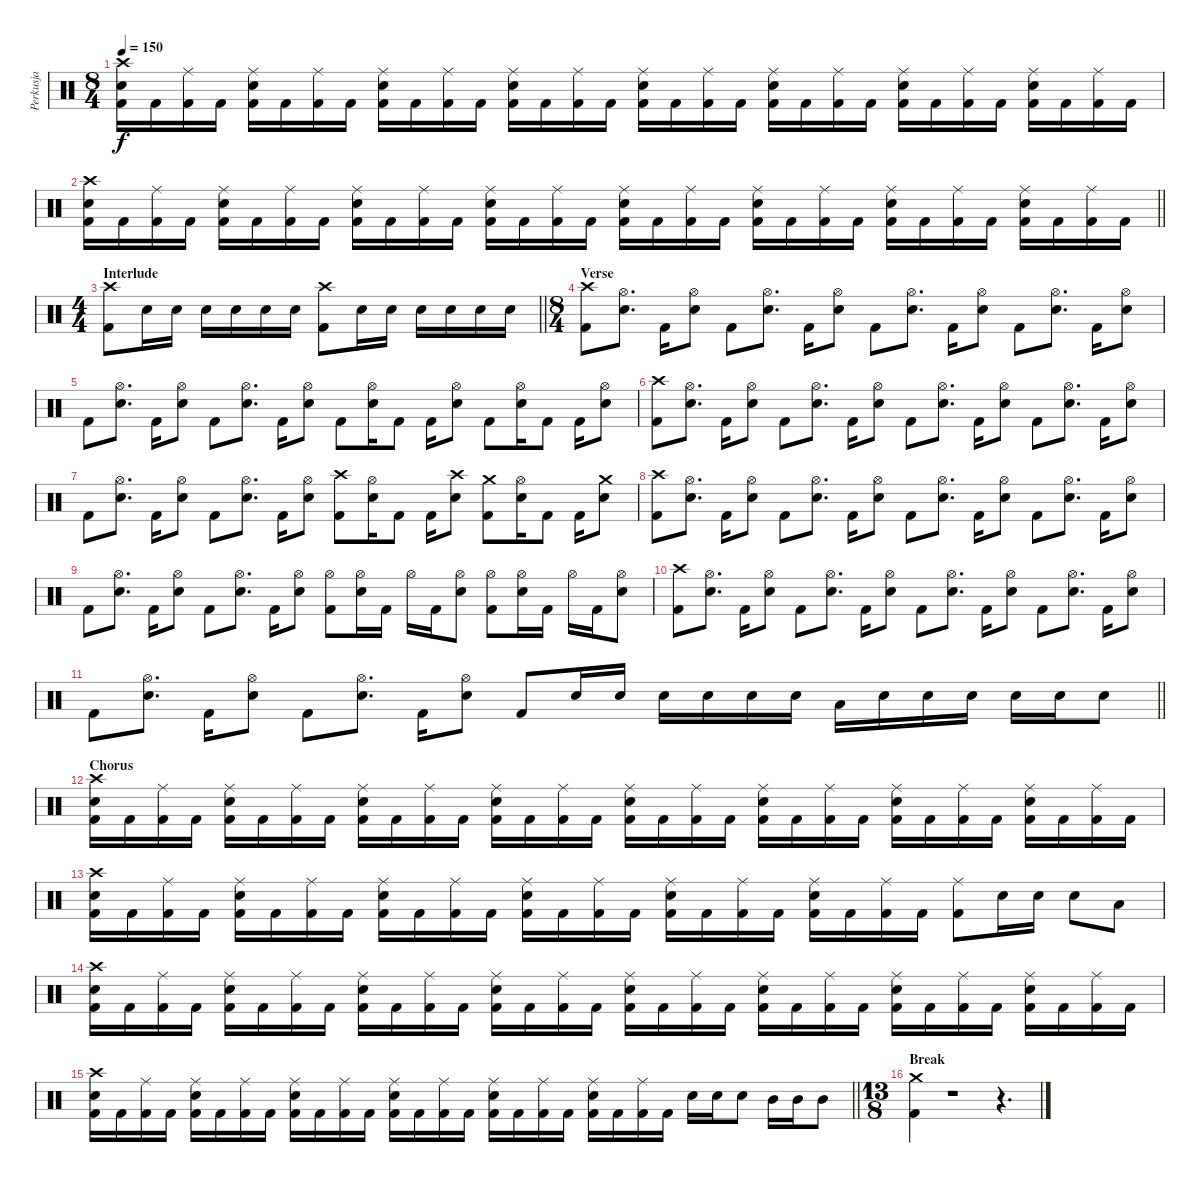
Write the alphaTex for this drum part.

\track ("Perkusja" "Perkusja") {instrument percussion}
\staff {score}
\articulation defaults
\ts (8 4)
\tempo 150
\clef neutral
\ks c
("Crash high (hit)" "Snare (hit) 2" "Kick (hit) 2").16{dy f} "Kick (hit) 2".16 ("Ride (middle)" "Kick (hit) 2").16 "Kick (hit) 2".16 ("Ride (middle)" "Snare (hit) 2" "Kick (hit) 2").16 "Kick (hit) 2".16 ("Ride (middle)" "Kick (hit) 2").16 "Kick (hit) 2".16 ("Ride (middle)" "Snare (hit) 2" "Kick (hit) 2").16 "Kick (hit) 2".16 ("Ride (middle)" "Kick (hit) 2").16 "Kick (hit) 2".16 ("Ride (middle)" "Snare (hit) 2" "Kick (hit) 2").16 "Kick (hit) 2".16 ("Ride (middle)" "Kick (hit) 2").16 "Kick (hit) 2".16 ("Ride (middle)" "Snare (hit) 2" "Kick (hit) 2").16 "Kick (hit) 2".16 ("Ride (middle)" "Kick (hit) 2").16 "Kick (hit) 2".16 ("Ride (middle)" "Snare (hit) 2" "Kick (hit) 2").16 "Kick (hit) 2".16 ("Ride (middle)" "Kick (hit) 2").16 "Kick (hit) 2".16 ("Ride (middle)" "Snare (hit) 2" "Kick (hit) 2").16 "Kick (hit) 2".16 ("Ride (middle)" "Kick (hit) 2").16 "Kick (hit) 2".16 ("Ride (middle)" "Snare (hit) 2" "Kick (hit) 2").16 "Kick (hit) 2".16 ("Ride (middle)" "Kick (hit) 2").16 "Kick (hit) 2".16 |
\barLineRight lightlight
("Crash high (hit)" "Snare (hit) 2" "Kick (hit) 2").16 "Kick (hit) 2".16 ("Ride (middle)" "Kick (hit) 2").16 "Kick (hit) 2".16 ("Ride (middle)" "Snare (hit) 2" "Kick (hit) 2").16 "Kick (hit) 2".16 ("Ride (middle)" "Kick (hit) 2").16 "Kick (hit) 2".16 ("Ride (middle)" "Snare (hit) 2" "Kick (hit) 2").16 "Kick (hit) 2".16 ("Ride (middle)" "Kick (hit) 2").16 "Kick (hit) 2".16 ("Ride (middle)" "Snare (hit) 2" "Kick (hit) 2").16 "Kick (hit) 2".16 ("Ride (middle)" "Kick (hit) 2").16 "Kick (hit) 2".16 ("Ride (middle)" "Snare (hit) 2" "Kick (hit) 2").16 "Kick (hit) 2".16 ("Ride (middle)" "Kick (hit) 2").16 "Kick (hit) 2".16 ("Ride (middle)" "Snare (hit) 2" "Kick (hit) 2").16 "Kick (hit) 2".16 ("Ride (middle)" "Kick (hit) 2").16 "Kick (hit) 2".16 ("Ride (middle)" "Snare (hit) 2" "Kick (hit) 2").16 "Kick (hit) 2".16 ("Ride (middle)" "Kick (hit) 2").16 "Kick (hit) 2".16 ("Ride (middle)" "Snare (hit) 2" "Kick (hit) 2").16 "Kick (hit) 2".16 ("Ride (middle)" "Kick (hit) 2").16 "Kick (hit) 2".16 |
\ts (4 4)
\section ("" "Interlude")
\barLineRight lightlight
("Crash high (hit)" "Kick (hit) 2").8 "Snare (hit) 2".16 "Snare (hit) 2".16 "Snare (hit) 2".16 "Snare (hit) 2".16 "Snare (hit) 2".16 "Snare (hit) 2".16 ("Crash high (hit)" "Kick (hit) 2").8 "Snare (hit) 2".16 "Snare (hit) 2".16 "Snare (hit) 2".16 "Snare (hit) 2".16 "Snare (hit) 2".16 "Snare (hit) 2".16 |
\ts (8 4)
\section ("" "Verse")
("Crash high (hit)" "Kick (hit) 2").8 ("Hi-Hat (open)" "Snare (hit) 2").8{d} "Kick (hit) 2".16 ("Hi-Hat (open)" "Snare (hit) 2").8 "Kick (hit) 2".8 ("Hi-Hat (open)" "Snare (hit) 2").8{d} "Kick (hit) 2".16 ("Hi-Hat (open)" "Snare (hit) 2").8 "Kick (hit) 2".8 ("Hi-Hat (open)" "Snare (hit) 2").8{d} "Kick (hit) 2".16 ("Hi-Hat (open)" "Snare (hit) 2").8 "Kick (hit) 2".8 ("Hi-Hat (open)" "Snare (hit) 2").8{d} "Kick (hit) 2".16 ("Hi-Hat (open)" "Snare (hit) 2").8 |
"Kick (hit) 2".8 ("Hi-Hat (open)" "Snare (hit) 2").8{d} "Kick (hit) 2".16 ("Hi-Hat (open)" "Snare (hit) 2").8 "Kick (hit) 2".8 ("Hi-Hat (open)" "Snare (hit) 2").8{d} "Kick (hit) 2".16 ("Hi-Hat (open)" "Snare (hit) 2").8 "Kick (hit) 2".8 ("Hi-Hat (open)" "Snare (hit) 2").16 "Kick (hit) 2".8 "Kick (hit) 2".16 ("Hi-Hat (open)" "Snare (hit) 2").8 "Kick (hit) 2".8 ("Hi-Hat (open)" "Snare (hit) 2").16 "Kick (hit) 2".8 "Kick (hit) 2".16 ("Hi-Hat (open)" "Snare (hit) 2").8 |
("Crash high (hit)" "Kick (hit) 2").8 ("Hi-Hat (open)" "Snare (hit) 2").8{d} "Kick (hit) 2".16 ("Hi-Hat (open)" "Snare (hit) 2").8 "Kick (hit) 2".8 ("Hi-Hat (open)" "Snare (hit) 2").8{d} "Kick (hit) 2".16 ("Hi-Hat (open)" "Snare (hit) 2").8 "Kick (hit) 2".8 ("Hi-Hat (open)" "Snare (hit) 2").8{d} "Kick (hit) 2".16 ("Hi-Hat (open)" "Snare (hit) 2").8 "Kick (hit) 2".8 ("Hi-Hat (open)" "Snare (hit) 2").8{d} "Kick (hit) 2".16 ("Hi-Hat (open)" "Snare (hit) 2").8 |
"Kick (hit) 2".8 ("Hi-Hat (open)" "Snare (hit) 2").8{d} "Kick (hit) 2".16 ("Hi-Hat (open)" "Snare (hit) 2").8 "Kick (hit) 2".8 ("Hi-Hat (open)" "Snare (hit) 2").8{d} "Kick (hit) 2".16 ("Hi-Hat (open)" "Snare (hit) 2").8 ("Crash high (hit)" "Kick (hit) 2").8 ("Hi-Hat (open)" "Snare (hit) 2").16 "Kick (hit) 2".8 "Kick (hit) 2".16 ("Crash high (hit)" "Snare (hit) 2").8 ("Crash medium (hit)" "Kick (hit) 2").8 ("Hi-Hat (open)" "Snare (hit) 2").16 "Kick (hit) 2".8 "Kick (hit) 2".16 ("Crash medium (hit)" "Snare (hit) 2").8 |
("Crash high (hit)" "Kick (hit) 2").8 ("Hi-Hat (open)" "Snare (hit) 2").8{d} "Kick (hit) 2".16 ("Hi-Hat (open)" "Snare (hit) 2").8 "Kick (hit) 2".8 ("Hi-Hat (open)" "Snare (hit) 2").8{d} "Kick (hit) 2".16 ("Hi-Hat (open)" "Snare (hit) 2").8 "Kick (hit) 2".8 ("Hi-Hat (open)" "Snare (hit) 2").8{d} "Kick (hit) 2".16 ("Hi-Hat (open)" "Snare (hit) 2").8 "Kick (hit) 2".8 ("Hi-Hat (open)" "Snare (hit) 2").8{d} "Kick (hit) 2".16 ("Hi-Hat (open)" "Snare (hit) 2").8 |
"Kick (hit) 2".8 ("Hi-Hat (open)" "Snare (hit) 2").8{d} "Kick (hit) 2".16 ("Hi-Hat (open)" "Snare (hit) 2").8 "Kick (hit) 2".8 ("Hi-Hat (open)" "Snare (hit) 2").8{d} "Kick (hit) 2".16 ("Hi-Hat (open)" "Snare (hit) 2").8 ("Hi-Hat (open)" "Kick (hit) 2").8 ("Hi-Hat (open)" "Snare (hit) 2").16 "Kick (hit) 2".16 "Hi-Hat (open)".16 "Kick (hit) 2".16 ("Hi-Hat (open)" "Snare (hit) 2").8 ("Hi-Hat (open)" "Kick (hit) 2").8 ("Hi-Hat (open)" "Snare (hit) 2").16 "Kick (hit) 2".16 "Hi-Hat (open)".16 "Kick (hit) 2".16 ("Hi-Hat (open)" "Snare (hit) 2").8 |
("Crash high (hit)" "Kick (hit) 2").8 ("Hi-Hat (open)" "Snare (hit) 2").8{d} "Kick (hit) 2".16 ("Hi-Hat (open)" "Snare (hit) 2").8 "Kick (hit) 2".8 ("Hi-Hat (open)" "Snare (hit) 2").8{d} "Kick (hit) 2".16 ("Hi-Hat (open)" "Snare (hit) 2").8 "Kick (hit) 2".8 ("Hi-Hat (open)" "Snare (hit) 2").8{d} "Kick (hit) 2".16 ("Hi-Hat (open)" "Snare (hit) 2").8 "Kick (hit) 2".8 ("Hi-Hat (open)" "Snare (hit) 2").8{d} "Kick (hit) 2".16 ("Hi-Hat (open)" "Snare (hit) 2").8 |
\barLineRight lightlight "Kick (hit) 2".8
("Hi-Hat (open)" "Snare (hit) 2").8{d} "Kick (hit) 2".16 ("Hi-Hat (open)" "Snare (hit) 2").8 "Kick (hit) 2".8 ("Hi-Hat (open)" "Snare (hit) 2").8{d} "Kick (hit) 2".16 ("Hi-Hat (open)" "Snare (hit) 2").8 "Kick (hit) 2".8 "Snare (hit) 2".16 "Snare (hit) 2".16 "Snare (hit) 2".16 "Snare (hit) 2".16 "Snare (hit) 2".16 "Snare (hit) 2".16 "Low Tom (hit)".16 "Snare (hit) 2".16 "Snare (hit) 2".16 "Snare (hit) 2".16 "Snare (hit) 2".16 "Snare (hit) 2".16 "Snare (hit) 2".8 |
\section ("" "Chorus")
("Crash high (hit)" "Snare (hit) 2" "Kick (hit) 2").16 "Kick (hit) 2".16 ("Ride (middle)" "Kick (hit) 2").16 "Kick (hit) 2".16 ("Ride (middle)" "Snare (hit) 2" "Kick (hit) 2").16 "Kick (hit) 2".16 ("Ride (middle)" "Kick (hit) 2").16 "Kick (hit) 2".16 ("Ride (middle)" "Snare (hit) 2" "Kick (hit) 2").16 "Kick (hit) 2".16 ("Ride (middle)" "Kick (hit) 2").16 "Kick (hit) 2".16 ("Ride (middle)" "Snare (hit) 2" "Kick (hit) 2").16 "Kick (hit) 2".16 ("Ride (middle)" "Kick (hit) 2").16 "Kick (hit) 2".16 ("Ride (middle)" "Snare (hit) 2" "Kick (hit) 2").16 "Kick (hit) 2".16 ("Ride (middle)" "Kick (hit) 2").16 "Kick (hit) 2".16 ("Ride (middle)" "Snare (hit) 2" "Kick (hit) 2").16 "Kick (hit) 2".16 ("Ride (middle)" "Kick (hit) 2").16 "Kick (hit) 2".16 ("Ride (middle)" "Snare (hit) 2" "Kick (hit) 2").16 "Kick (hit) 2".16 ("Ride (middle)" "Kick (hit) 2").16 "Kick (hit) 2".16 ("Ride (middle)" "Snare (hit) 2" "Kick (hit) 2").16 "Kick (hit) 2".16 ("Ride (middle)" "Kick (hit) 2").16 "Kick (hit) 2".16 |
("Crash high (hit)" "Snare (hit) 2" "Kick (hit) 2").16 "Kick (hit) 2".16 ("Ride (middle)" "Kick (hit) 2").16 "Kick (hit) 2".16 ("Ride (middle)" "Snare (hit) 2" "Kick (hit) 2").16 "Kick (hit) 2".16 ("Ride (middle)" "Kick (hit) 2").16 "Kick (hit) 2".16 ("Ride (middle)" "Snare (hit) 2" "Kick (hit) 2").16 "Kick (hit) 2".16 ("Ride (middle)" "Kick (hit) 2").16 "Kick (hit) 2".16 ("Ride (middle)" "Snare (hit) 2" "Kick (hit) 2").16 "Kick (hit) 2".16 ("Ride (middle)" "Kick (hit) 2").16 "Kick (hit) 2".16 ("Ride (middle)" "Snare (hit) 2" "Kick (hit) 2").16 "Kick (hit) 2".16 ("Ride (middle)" "Kick (hit) 2").16 "Kick (hit) 2".16 ("Ride (middle)" "Snare (hit) 2" "Kick (hit) 2").16 "Kick (hit) 2".16 ("Ride (middle)" "Kick (hit) 2").16 "Kick (hit) 2".16 ("Ride (middle)" "Kick (hit) 2").8 "Snare (hit) 2".16 "Snare (hit) 2".16 "Snare (hit) 2".8 "Low Tom (hit)".8 |
("Crash high (hit)" "Snare (hit) 2" "Kick (hit) 2").16 "Kick (hit) 2".16 ("Ride (middle)" "Kick (hit) 2").16 "Kick (hit) 2".16 ("Ride (middle)" "Snare (hit) 2" "Kick (hit) 2").16 "Kick (hit) 2".16 ("Ride (middle)" "Kick (hit) 2").16 "Kick (hit) 2".16 ("Ride (middle)" "Snare (hit) 2" "Kick (hit) 2").16 "Kick (hit) 2".16 ("Ride (middle)" "Kick (hit) 2").16 "Kick (hit) 2".16 ("Ride (middle)" "Snare (hit) 2" "Kick (hit) 2").16 "Kick (hit) 2".16 ("Ride (middle)" "Kick (hit) 2").16 "Kick (hit) 2".16 ("Ride (middle)" "Snare (hit) 2" "Kick (hit) 2").16 "Kick (hit) 2".16 ("Ride (middle)" "Kick (hit) 2").16 "Kick (hit) 2".16 ("Ride (middle)" "Snare (hit) 2" "Kick (hit) 2").16 "Kick (hit) 2".16 ("Ride (middle)" "Kick (hit) 2").16 "Kick (hit) 2".16 ("Ride (middle)" "Snare (hit) 2" "Kick (hit) 2").16 "Kick (hit) 2".16 ("Ride (middle)" "Kick (hit) 2").16 "Kick (hit) 2".16 ("Ride (middle)" "Snare (hit) 2" "Kick (hit) 2").16 "Kick (hit) 2".16 ("Ride (middle)" "Kick (hit) 2").16 "Kick (hit) 2".16 |
\barLineRight lightlight
("Crash high (hit)" "Snare (hit) 2" "Kick (hit) 2").16 "Kick (hit) 2".16 ("Ride (middle)" "Kick (hit) 2").16 "Kick (hit) 2".16 ("Ride (middle)" "Snare (hit) 2" "Kick (hit) 2").16 "Kick (hit) 2".16 ("Ride (middle)" "Kick (hit) 2").16 "Kick (hit) 2".16 ("Ride (middle)" "Snare (hit) 2" "Kick (hit) 2").16 "Kick (hit) 2".16 ("Ride (middle)" "Kick (hit) 2").16 "Kick (hit) 2".16 ("Ride (middle)" "Snare (hit) 2" "Kick (hit) 2").16 "Kick (hit) 2".16 ("Ride (middle)" "Kick (hit) 2").16 "Kick (hit) 2".16 ("Ride (middle)" "Snare (hit) 2" "Kick (hit) 2").16 "Kick (hit) 2".16 ("Ride (middle)" "Kick (hit) 2").16 "Kick (hit) 2".16 ("Ride (middle)" "Snare (hit) 2" "Kick (hit) 2").16 "Kick (hit) 2".16 ("Ride (middle)" "Kick (hit) 2").16 "Kick (hit) 2".16 "Snare (hit) 2".16 "Snare (hit) 2".16 "Snare (hit) 2".8 "Mid Tom (hit)".16 "Mid Tom (hit)".16 "Mid Tom (hit)".8 |
\ts (13 8)
\section ("" "Break")
("Crash medium (hit)" "Kick (hit) 2").4 r.1 r.4{d}
